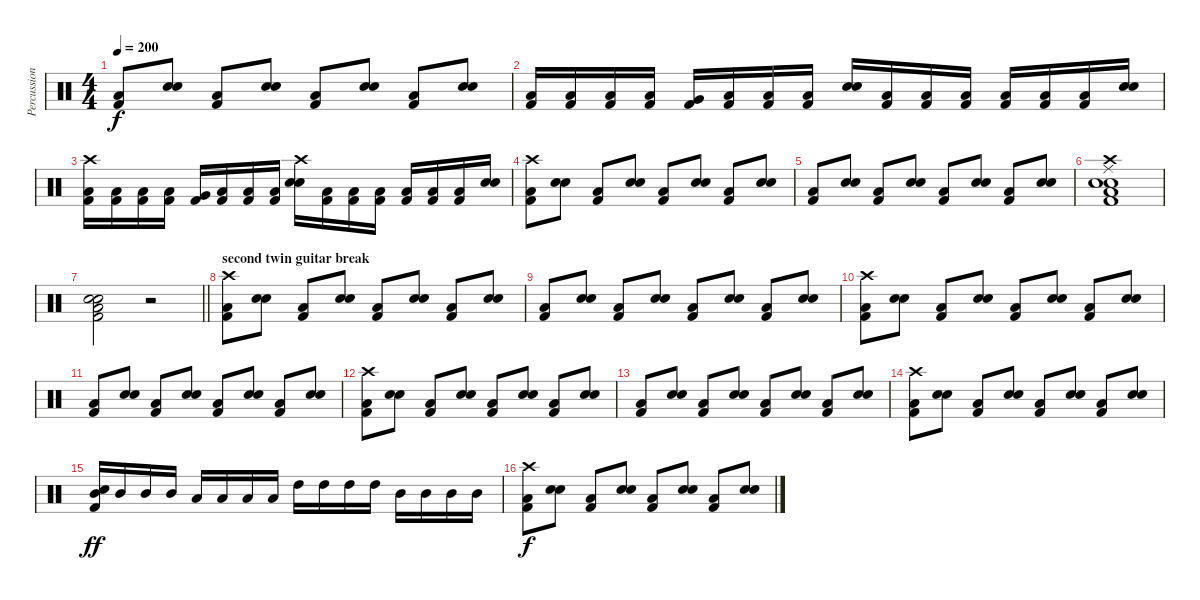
\track ("Percussion, dave" "Percussion") {instrument percussion}
\staff {score}
\articulation defaults
\ts (4 4)
\tempo 200
\clef neutral
\ks c
("Low Tom (hit)" "Kick (hit) 2").8{dy f} ("Snare (hit) 2" "Electric Snare (hit)").8 ("Low Tom (hit)" "Kick (hit) 2").8 ("Snare (hit) 2" "Electric Snare (hit)").8 ("Low Tom (hit)" "Kick (hit) 2").8 ("Snare (hit) 2" "Electric Snare (hit)").8 ("Low Tom (hit)" "Kick (hit) 2").8 ("Snare (hit) 2" "Electric Snare (hit)").8 |
("Low Tom (hit)" "Kick (hit) 2").16 ("Low Tom (hit)" "Kick (hit) 2").16 ("Low Tom (hit)" "Kick (hit) 2").16 ("Low Tom (hit)" "Kick (hit) 2").16 ("Very Low Tom (hit)" "Kick (hit) 2").16 ("Low Tom (hit)" "Kick (hit) 2").16 ("Low Tom (hit)" "Kick (hit) 2").16 ("Low Tom (hit)" "Kick (hit) 2").16 ("Snare (hit) 2" "Electric Snare (hit)").16 ("Low Tom (hit)" "Kick (hit) 2").16 ("Low Tom (hit)" "Kick (hit) 2").16 ("Low Tom (hit)" "Kick (hit) 2").16 ("Low Tom (hit)" "Kick (hit) 2").16 ("Low Tom (hit)" "Kick (hit) 2").16 ("Low Tom (hit)" "Kick (hit) 2").16 ("Snare (hit) 2" "Electric Snare (hit)").16 |
("Crash high (hit)" "Low Tom (hit)" "Kick (hit) 2").16 ("Low Tom (hit)" "Kick (hit) 2").16 ("Low Tom (hit)" "Kick (hit) 2").16 ("Low Tom (hit)" "Kick (hit) 2").16 ("Very Low Tom (hit)" "Kick (hit) 2").16 ("Low Tom (hit)" "Kick (hit) 2").16 ("Low Tom (hit)" "Kick (hit) 2").16 ("Low Tom (hit)" "Kick (hit) 2").16 ("Snare (hit) 2" "Electric Snare (hit)" "Crash high (hit)").16 ("Low Tom (hit)" "Kick (hit) 2").16 ("Low Tom (hit)" "Kick (hit) 2").16 ("Low Tom (hit)" "Kick (hit) 2").16 ("Low Tom (hit)" "Kick (hit) 2").16 ("Low Tom (hit)" "Kick (hit) 2").16 ("Low Tom (hit)" "Kick (hit) 2").16 ("Snare (hit) 2" "Electric Snare (hit)").16 |
("Crash high (hit)" "Low Tom (hit)" "Kick (hit) 2").8 ("Snare (hit) 2" "Electric Snare (hit)").8 ("Low Tom (hit)" "Kick (hit) 2").8 ("Snare (hit) 2" "Electric Snare (hit)").8 ("Low Tom (hit)" "Kick (hit) 2").8 ("Snare (hit) 2" "Electric Snare (hit)").8 ("Low Tom (hit)" "Kick (hit) 2").8 ("Snare (hit) 2" "Electric Snare (hit)").8 |
("Low Tom (hit)" "Kick (hit) 2").8 ("Snare (hit) 2" "Electric Snare (hit)").8 ("Low Tom (hit)" "Kick (hit) 2").8 ("Snare (hit) 2" "Electric Snare (hit)").8 ("Low Tom (hit)" "Kick (hit) 2").8 ("Snare (hit) 2" "Electric Snare (hit)").8 ("Low Tom (hit)" "Kick (hit) 2").8 ("Snare (hit) 2" "Electric Snare (hit)").8 |
("Crash high (hit)" "Ride (middle)" "Snare (hit) 2" "Electric Snare (hit)" "Kick (hit) 2" "Low Tom (hit)").1 |
\barLineRight lightlight
("Electric Snare (hit)" "Snare (hit) 2" "Low Tom (hit)" "Kick (hit) 2").2 r.2 |
\section ("" "second twin guitar break")
("Crash high (hit)" "Low Tom (hit)" "Kick (hit) 2").8 ("Snare (hit) 2" "Electric Snare (hit)").8 ("Low Tom (hit)" "Kick (hit) 2").8 ("Snare (hit) 2" "Electric Snare (hit)").8 ("Low Tom (hit)" "Kick (hit) 2").8 ("Snare (hit) 2" "Electric Snare (hit)").8 ("Low Tom (hit)" "Kick (hit) 2").8 ("Snare (hit) 2" "Electric Snare (hit)").8 |
("Low Tom (hit)" "Kick (hit) 2").8 ("Snare (hit) 2" "Electric Snare (hit)").8 ("Low Tom (hit)" "Kick (hit) 2").8 ("Snare (hit) 2" "Electric Snare (hit)").8 ("Low Tom (hit)" "Kick (hit) 2").8 ("Snare (hit) 2" "Electric Snare (hit)").8 ("Low Tom (hit)" "Kick (hit) 2").8 ("Snare (hit) 2" "Electric Snare (hit)").8 |
("Crash high (hit)" "Low Tom (hit)" "Kick (hit) 2").8 ("Snare (hit) 2" "Electric Snare (hit)").8 ("Low Tom (hit)" "Kick (hit) 2").8 ("Snare (hit) 2" "Electric Snare (hit)").8 ("Low Tom (hit)" "Kick (hit) 2").8 ("Snare (hit) 2" "Electric Snare (hit)").8 ("Low Tom (hit)" "Kick (hit) 2").8 ("Snare (hit) 2" "Electric Snare (hit)").8 |
("Low Tom (hit)" "Kick (hit) 2").8 ("Snare (hit) 2" "Electric Snare (hit)").8 ("Low Tom (hit)" "Kick (hit) 2").8 ("Snare (hit) 2" "Electric Snare (hit)").8 ("Low Tom (hit)" "Kick (hit) 2").8 ("Snare (hit) 2" "Electric Snare (hit)").8 ("Low Tom (hit)" "Kick (hit) 2").8 ("Snare (hit) 2" "Electric Snare (hit)").8 |
("Crash high (hit)" "Low Tom (hit)" "Kick (hit) 2").8 ("Snare (hit) 2" "Electric Snare (hit)").8 ("Low Tom (hit)" "Kick (hit) 2").8 ("Snare (hit) 2" "Electric Snare (hit)").8 ("Low Tom (hit)" "Kick (hit) 2").8 ("Snare (hit) 2" "Electric Snare (hit)").8 ("Low Tom (hit)" "Kick (hit) 2").8 ("Snare (hit) 2" "Electric Snare (hit)").8 |
("Low Tom (hit)" "Kick (hit) 2").8 ("Snare (hit) 2" "Electric Snare (hit)").8 ("Low Tom (hit)" "Kick (hit) 2").8 ("Snare (hit) 2" "Electric Snare (hit)").8 ("Low Tom (hit)" "Kick (hit) 2").8 ("Snare (hit) 2" "Electric Snare (hit)").8 ("Low Tom (hit)" "Kick (hit) 2").8 ("Snare (hit) 2" "Electric Snare (hit)").8 |
("Crash high (hit)" "Low Tom (hit)" "Kick (hit) 2").8 ("Snare (hit) 2" "Electric Snare (hit)").8 ("Low Tom (hit)" "Kick (hit) 2").8 ("Snare (hit) 2" "Electric Snare (hit)").8 ("Low Tom (hit)" "Kick (hit) 2").8 ("Snare (hit) 2" "Electric Snare (hit)").8 ("Low Tom (hit)" "Kick (hit) 2").8 ("Snare (hit) 2" "Electric Snare (hit)").8 |
("Mid Tom (hit)" "Snare (hit) 2" "Kick (hit) 2").16{dy ff} "Mid Tom (hit)".16 "Mid Tom (hit)".16 "Mid Tom (hit)".16 "Low Tom (hit)".16 "Low Tom (hit)".16 "Low Tom (hit)".16 "Low Tom (hit)".16 "High Tom (hit)".16 "High Tom (hit)".16 "High Tom (hit)".16 "High Tom (hit)".16 "Mid Tom (hit)".16 "Mid Tom (hit)".16 "Mid Tom (hit)".16 "Mid Tom (hit)".16 |
("Crash high (hit)" "Low Tom (hit)" "Kick (hit) 2").8{dy f} ("Snare (hit) 2" "Electric Snare (hit)").8 ("Low Tom (hit)" "Kick (hit) 2").8 ("Snare (hit) 2" "Electric Snare (hit)").8 ("Low Tom (hit)" "Kick (hit) 2").8 ("Snare (hit) 2" "Electric Snare (hit)").8 ("Low Tom (hit)" "Kick (hit) 2").8 ("Snare (hit) 2" "Electric Snare (hit)").8
